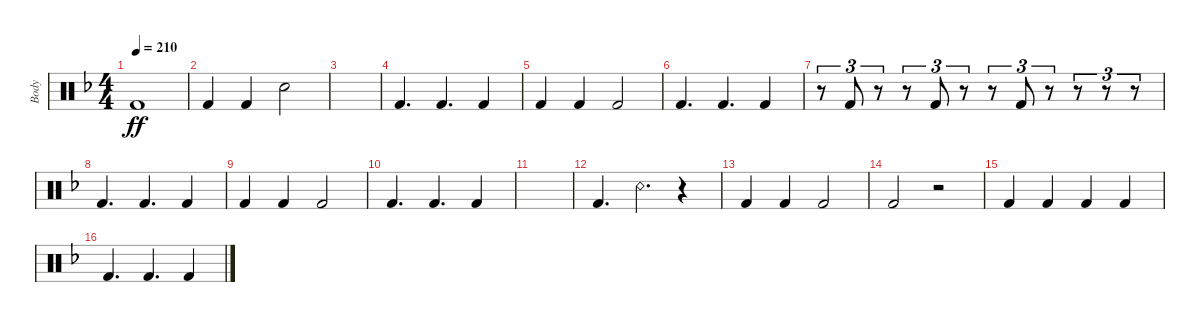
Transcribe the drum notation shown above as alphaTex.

\track ("Body" "Body") {instrument percussion}
\staff {score}
\articulation defaults
\ts (4 4)
\tempo 210
\clef neutral
\ks dminor "Kick (hit) 2".1{dy ff}
|
"Kick (hit) 2".4 "Kick (hit) 2".4 "Snare (hit) 2".2 |
|
"Kick (hit) 2".4{d} "Kick (hit) 2".4{d} "Kick (hit) 2".4 |
"Kick (hit) 2".4 "Kick (hit) 2".4 "Kick (hit) 2".2 |
"Kick (hit) 2".4{d} "Kick (hit) 2".4{d} "Kick (hit) 2".4 |
r.8{tu (3 2)} "Kick (hit) 2".8{tu (3 2)} r.8{tu (3 2)} r.8{tu (3 2)} "Kick (hit) 2".8{tu (3 2)} r.8{tu (3 2)} r.8{tu (3 2)} "Kick (hit) 2".8{tu (3 2)} r.8{tu (3 2)} r.8{tu (3 2)} r.8{tu (3 2)} r.8{tu (3 2)} |
"Kick (hit) 2".4{d} "Kick (hit) 2".4{d} "Kick (hit) 2".4 |
"Kick (hit) 2".4 "Kick (hit) 2".4 "Kick (hit) 2".2 |
"Kick (hit) 2".4{d} "Kick (hit) 2".4{d} "Kick (hit) 2".4 |
|
"Kick (hit) 2".4{d} "Snare (rim shot)".4{d} r.4 |
"Kick (hit) 2".4 "Kick (hit) 2".4 "Kick (hit) 2".2 |
"Kick (hit) 2".2 r.2 |
"Kick (hit) 2".4 "Kick (hit) 2".4 "Kick (hit) 2".4 "Kick (hit) 2".4 |
"Kick (hit) 2".4{d} "Kick (hit) 2".4{d} "Kick (hit) 2".4
